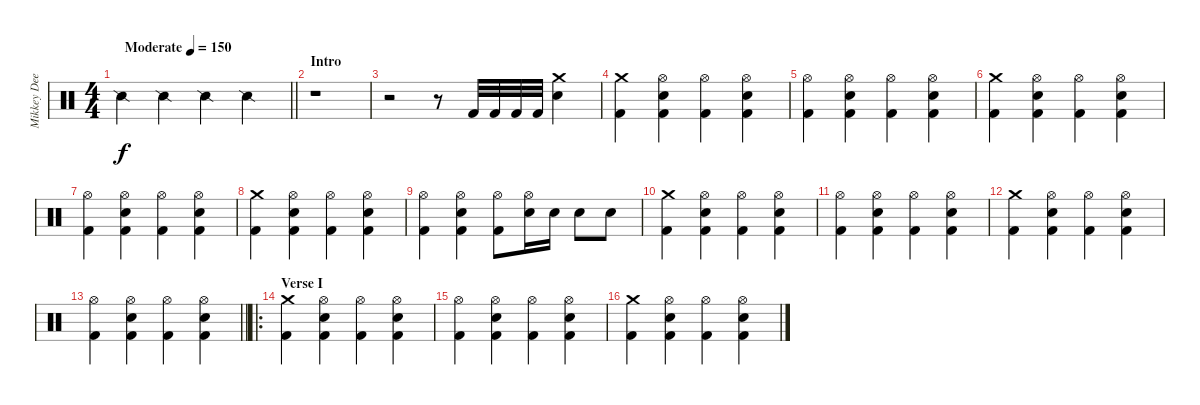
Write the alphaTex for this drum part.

\track ("Mikkey Dee" "Mikkey Dee") {instrument percussion}
\staff {score}
\articulation defaults
\ts (4 4)
\tempo (150 "Moderate")
\clef neutral
\barLineRight lightlight
\ks c "Snare (side stick) 2".4{dy f} "Snare (side stick) 2".4 "Snare (side stick) 2".4 "Snare (side stick) 2".4
|
\section ("" "Intro")
r.1 |
r.2 r.8 "Kick (hit) 2".32 "Kick (hit) 2".32 "Kick (hit) 2".32 "Kick (hit) 2".32 ("Crash medium (hit)" "Electric Snare (hit)").4 |
("Crash medium (hit)" "Kick (hit) 2").4 ("Hi-Hat (open)" "Electric Snare (hit)" "Kick (hit) 2").4 ("Hi-Hat (open)" "Kick (hit) 2").4 ("Hi-Hat (open)" "Electric Snare (hit)" "Kick (hit) 2").4 |
("Hi-Hat (open)" "Kick (hit) 2").4 ("Hi-Hat (open)" "Electric Snare (hit)" "Kick (hit) 2").4 ("Hi-Hat (open)" "Kick (hit) 2").4 ("Hi-Hat (open)" "Electric Snare (hit)" "Kick (hit) 2").4 |
("Crash medium (hit)" "Kick (hit) 2").4 ("Hi-Hat (open)" "Electric Snare (hit)" "Kick (hit) 2").4 ("Hi-Hat (open)" "Kick (hit) 2").4 ("Hi-Hat (open)" "Electric Snare (hit)" "Kick (hit) 2").4 |
("Hi-Hat (open)" "Kick (hit) 2").4 ("Hi-Hat (open)" "Electric Snare (hit)" "Kick (hit) 2").4 ("Hi-Hat (open)" "Kick (hit) 2").4 ("Hi-Hat (open)" "Electric Snare (hit)" "Kick (hit) 2").4 |
("Crash medium (hit)" "Kick (hit) 2").4 ("Hi-Hat (open)" "Electric Snare (hit)" "Kick (hit) 2").4 ("Hi-Hat (open)" "Kick (hit) 2").4 ("Hi-Hat (open)" "Electric Snare (hit)" "Kick (hit) 2").4 |
("Hi-Hat (open)" "Kick (hit) 2").4 ("Hi-Hat (open)" "Electric Snare (hit)" "Kick (hit) 2").4 ("Hi-Hat (open)" "Kick (hit) 2").8 ("Hi-Hat (open)" "Electric Snare (hit)").16 "Electric Snare (hit)".16 "Electric Snare (hit)".8 "Electric Snare (hit)".8 |
("Crash medium (hit)" "Kick (hit) 2").4 ("Hi-Hat (open)" "Electric Snare (hit)" "Kick (hit) 2").4 ("Hi-Hat (open)" "Kick (hit) 2").4 ("Hi-Hat (open)" "Electric Snare (hit)" "Kick (hit) 2").4 |
("Hi-Hat (open)" "Kick (hit) 2").4 ("Hi-Hat (open)" "Electric Snare (hit)" "Kick (hit) 2").4 ("Hi-Hat (open)" "Kick (hit) 2").4 ("Hi-Hat (open)" "Electric Snare (hit)" "Kick (hit) 2").4 |
("Crash medium (hit)" "Kick (hit) 2").4 ("Hi-Hat (open)" "Electric Snare (hit)" "Kick (hit) 2").4 ("Hi-Hat (open)" "Kick (hit) 2").4 ("Hi-Hat (open)" "Electric Snare (hit)" "Kick (hit) 2").4 |
\barLineRight lightlight
("Hi-Hat (open)" "Kick (hit) 2").4 ("Hi-Hat (open)" "Electric Snare (hit)" "Kick (hit) 2").4 ("Hi-Hat (open)" "Kick (hit) 2").4 ("Hi-Hat (open)" "Electric Snare (hit)" "Kick (hit) 2").4 |
\ro
\section ("" "Verse I")
("Crash medium (hit)" "Kick (hit) 2").4 ("Hi-Hat (open)" "Electric Snare (hit)" "Kick (hit) 2").4 ("Hi-Hat (open)" "Kick (hit) 2").4 ("Hi-Hat (open)" "Electric Snare (hit)" "Kick (hit) 2").4 |
("Hi-Hat (open)" "Kick (hit) 2").4 ("Hi-Hat (open)" "Electric Snare (hit)" "Kick (hit) 2").4 ("Hi-Hat (open)" "Kick (hit) 2").4 ("Hi-Hat (open)" "Electric Snare (hit)" "Kick (hit) 2").4 |
("Crash medium (hit)" "Kick (hit) 2").4 ("Hi-Hat (open)" "Electric Snare (hit)" "Kick (hit) 2").4 ("Hi-Hat (open)" "Kick (hit) 2").4 ("Hi-Hat (open)" "Electric Snare (hit)" "Kick (hit) 2").4
